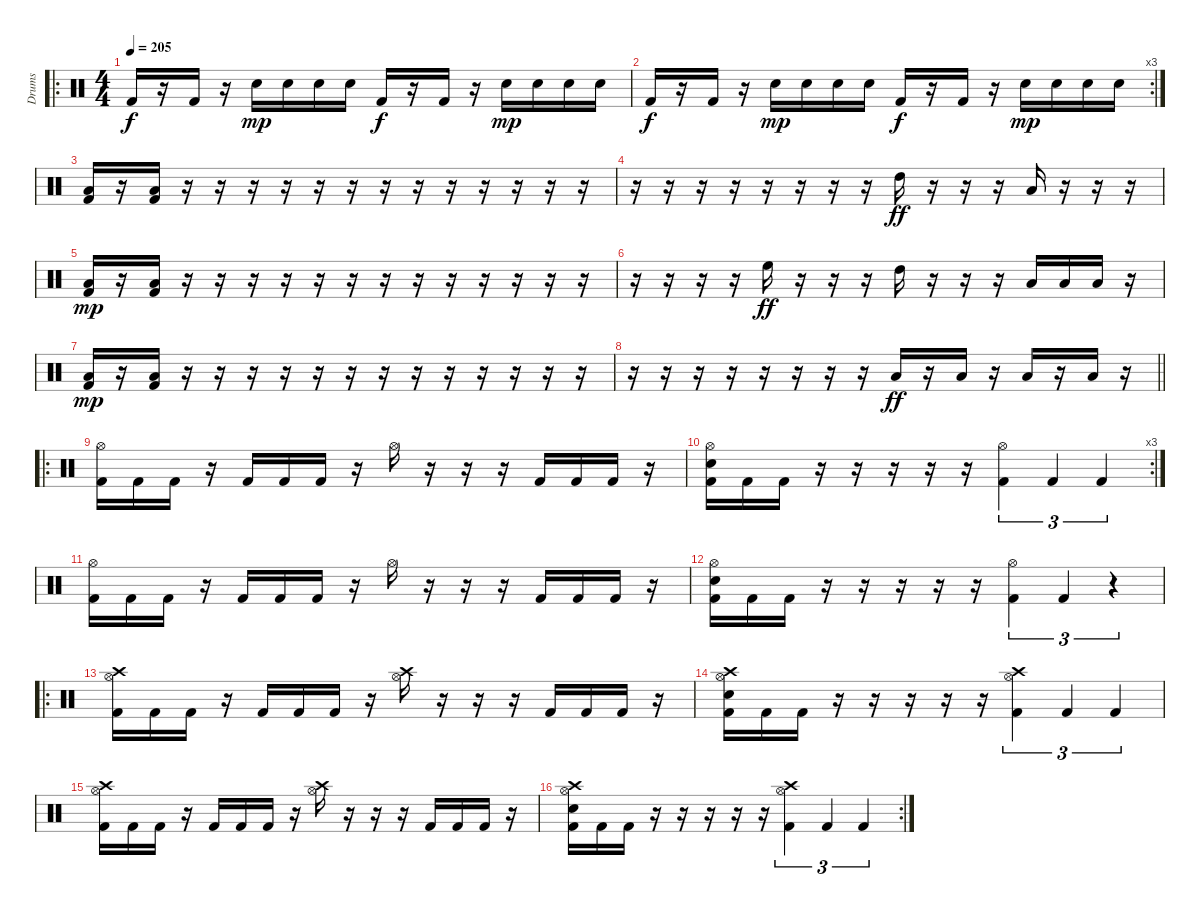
\track ("Drums" "Drums") {instrument percussion}
\staff {score}
\articulation defaults
\ro
\ts (4 4)
\tempo 205
\clef neutral
\ks c "Kick (hit) 2".16{dy f}
r.16 "Kick (hit) 2".16 r.16 "Snare (hit) 2".16{dy mp} "Snare (hit) 2".16 "Snare (hit) 2".16 "Snare (hit) 2".16 "Kick (hit) 2".16{dy f} r.16 "Kick (hit) 2".16 r.16 "Snare (hit) 2".16{dy mp} "Snare (hit) 2".16 "Snare (hit) 2".16 "Snare (hit) 2".16 |
\rc 3 "Kick (hit) 2".16{dy f}
r.16 "Kick (hit) 2".16 r.16 "Snare (hit) 2".16{dy mp} "Snare (hit) 2".16 "Snare (hit) 2".16 "Snare (hit) 2".16 "Kick (hit) 2".16{dy f} r.16 "Kick (hit) 2".16 r.16 "Snare (hit) 2".16{dy mp} "Snare (hit) 2".16 "Snare (hit) 2".16 "Snare (hit) 2".16 |
("Low Tom (hit)" "Kick (hit) 2").16 r.16 ("Low Tom (hit)" "Kick (hit) 2").16 r.16 r.16 r.16 r.16 r.16 r.16 r.16 r.16 r.16 r.16 r.16 r.16 r.16 |
r.16 r.16 r.16 r.16 r.16 r.16 r.16 r.16 "High Tom (hit)".16{dy ff} r.16 r.16 r.16 "Low Tom (hit)".16 r.16 r.16 r.16 |
("Low Tom (hit)" "Kick (hit) 2").16{dy mp} r.16 ("Low Tom (hit)" "Kick (hit) 2").16 r.16 r.16 r.16 r.16 r.16 r.16 r.16 r.16 r.16 r.16 r.16 r.16 r.16 |
r.16 r.16 r.16 r.16 "High Floor Tom (hit)".16{dy ff} r.16 r.16 r.16 "High Tom (hit)".16 r.16 r.16 r.16 "Low Tom (hit)".16 "Low Tom (hit)".16 "Low Tom (hit)".16 r.16 |
("Low Tom (hit)" "Kick (hit) 2").16{dy mp} r.16 ("Low Tom (hit)" "Kick (hit) 2").16 r.16 r.16 r.16 r.16 r.16 r.16 r.16 r.16 r.16 r.16 r.16 r.16 r.16 |
\barLineRight lightlight
r.16 r.16 r.16 r.16 r.16 r.16 r.16 r.16 "Low Tom (hit)".16{dy ff} r.16 "Low Tom (hit)".16 r.16 "Low Tom (hit)".16 r.16 "Low Tom (hit)".16 r.16 |
\ro
("Hi-Hat (open)" "Kick (hit) 2").16 "Kick (hit) 2".16 "Kick (hit) 2".16 r.16 "Kick (hit) 2".16 "Kick (hit) 2".16 "Kick (hit) 2".16 r.16 "Hi-Hat (open)".16 r.16 r.16 r.16 "Kick (hit) 2".16 "Kick (hit) 2".16 "Kick (hit) 2".16 r.16 |
\rc 3
("Hi-Hat (open)" "Snare (hit) 2" "Kick (hit) 2").16 "Kick (hit) 2".16 "Kick (hit) 2".16 r.16 r.16 r.16 r.16 r.16 ("Hi-Hat (open)" "Kick (hit) 2").4{tu (3 2)} "Kick (hit) 2".4{tu (3 2)} "Kick (hit) 2".4{tu (3 2)} |
("Hi-Hat (open)" "Kick (hit) 2").16 "Kick (hit) 2".16 "Kick (hit) 2".16 r.16 "Kick (hit) 2".16 "Kick (hit) 2".16 "Kick (hit) 2".16 r.16 "Hi-Hat (open)".16 r.16 r.16 r.16 "Kick (hit) 2".16 "Kick (hit) 2".16 "Kick (hit) 2".16 r.16 |
("Hi-Hat (open)" "Snare (hit) 2" "Kick (hit) 2").16 "Kick (hit) 2".16 "Kick (hit) 2".16 r.16 r.16 r.16 r.16 r.16 ("Hi-Hat (open)" "Kick (hit) 2").4{tu (3 2)} "Kick (hit) 2".4{tu (3 2)} r.4{tu (3 2)} |
\ro
("Crash high (hit)" "Hi-Hat (open)" "Kick (hit) 2").16 "Kick (hit) 2".16 "Kick (hit) 2".16 r.16 "Kick (hit) 2".16 "Kick (hit) 2".16 "Kick (hit) 2".16 r.16 ("Crash high (hit)" "Hi-Hat (open)").16 r.16 r.16 r.16 "Kick (hit) 2".16 "Kick (hit) 2".16 "Kick (hit) 2".16 r.16 |
("Crash high (hit)" "Hi-Hat (open)" "Snare (hit) 2" "Kick (hit) 2").16 "Kick (hit) 2".16 "Kick (hit) 2".16 r.16 r.16 r.16 r.16 r.16 ("Crash high (hit)" "Hi-Hat (open)" "Kick (hit) 2").4{tu (3 2)} "Kick (hit) 2".4{tu (3 2)} "Kick (hit) 2".4{tu (3 2)} |
("Crash high (hit)" "Hi-Hat (open)" "Kick (hit) 2").16 "Kick (hit) 2".16 "Kick (hit) 2".16 r.16 "Kick (hit) 2".16 "Kick (hit) 2".16 "Kick (hit) 2".16 r.16 ("Crash high (hit)" "Hi-Hat (open)").16 r.16 r.16 r.16 "Kick (hit) 2".16 "Kick (hit) 2".16 "Kick (hit) 2".16 r.16 |
\rc 2
("Crash high (hit)" "Hi-Hat (open)" "Snare (hit) 2" "Kick (hit) 2").16 "Kick (hit) 2".16 "Kick (hit) 2".16 r.16 r.16 r.16 r.16 r.16 ("Crash high (hit)" "Hi-Hat (open)" "Kick (hit) 2").4{tu (3 2)} "Kick (hit) 2".4{tu (3 2)} "Kick (hit) 2".4{tu (3 2)}
